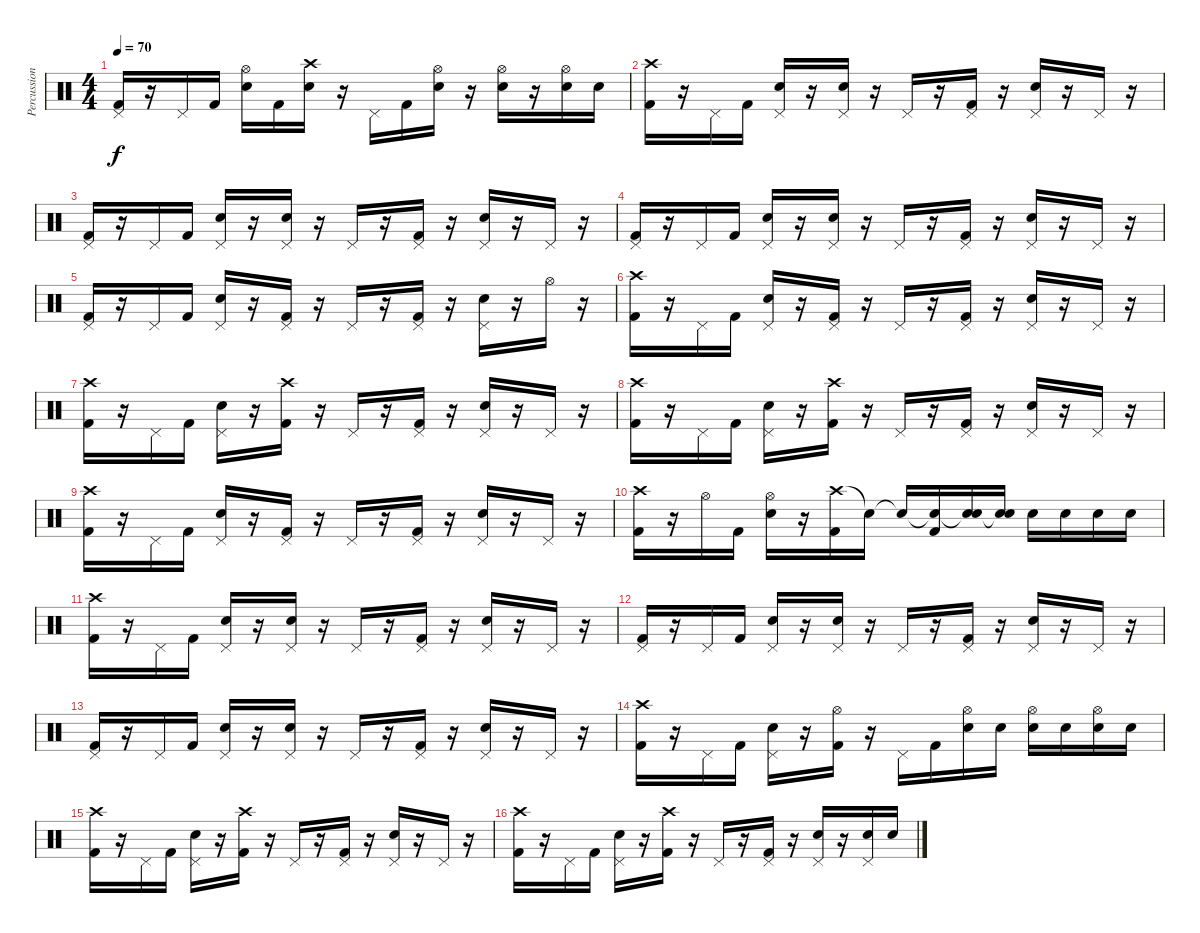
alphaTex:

\track ("Percussion" "Percussion") {instrument percussion}
\staff {score}
\articulation defaults
\ts (4 4)
\tempo 70
\clef neutral
\ks c
("Pedal Hi-Hat (hit)" "Kick (hit) 2").16{dy f} r.16 "Pedal Hi-Hat (hit)".16 "Kick (hit) 2".16 ("Hi-Hat (open)" "Electric Snare (hit)").16 "Kick (hit) 2".16 ("Crash high (hit)" "Electric Snare (hit)").16 r.16 "Pedal Hi-Hat (hit)".16 "Kick (hit) 2".16 ("Hi-Hat (open)" "Electric Snare (hit)").16 r.16 ("Hi-Hat (open)" "Electric Snare (hit)").16 r.16 ("Hi-Hat (open)" "Electric Snare (hit)").16 "Electric Snare (hit)".16 |
("Crash high (hit)" "Kick (hit) 2").16 r.16 "Pedal Hi-Hat (hit)".16 "Kick (hit) 2".16 ("Pedal Hi-Hat (hit)" "Electric Snare (hit)").16 r.16 ("Pedal Hi-Hat (hit)" "Electric Snare (hit)").16 r.16 "Pedal Hi-Hat (hit)".16 r.16 ("Pedal Hi-Hat (hit)" "Kick (hit) 2").16 r.16 ("Pedal Hi-Hat (hit)" "Electric Snare (hit)").16 r.16 "Pedal Hi-Hat (hit)".16 r.16 |
("Pedal Hi-Hat (hit)" "Kick (hit) 2").16 r.16 "Pedal Hi-Hat (hit)".16 "Kick (hit) 2".16 ("Pedal Hi-Hat (hit)" "Electric Snare (hit)").16 r.16 ("Pedal Hi-Hat (hit)" "Electric Snare (hit)").16 r.16 "Pedal Hi-Hat (hit)".16 r.16 ("Pedal Hi-Hat (hit)" "Kick (hit) 2").16 r.16 ("Pedal Hi-Hat (hit)" "Electric Snare (hit)").16 r.16 "Pedal Hi-Hat (hit)".16 r.16 |
("Pedal Hi-Hat (hit)" "Kick (hit) 2").16 r.16 "Pedal Hi-Hat (hit)".16 "Kick (hit) 2".16 ("Pedal Hi-Hat (hit)" "Electric Snare (hit)").16 r.16 ("Pedal Hi-Hat (hit)" "Electric Snare (hit)").16 r.16 "Pedal Hi-Hat (hit)".16 r.16 ("Pedal Hi-Hat (hit)" "Kick (hit) 2").16 r.16 ("Pedal Hi-Hat (hit)" "Electric Snare (hit)").16 r.16 "Pedal Hi-Hat (hit)".16 r.16 |
("Pedal Hi-Hat (hit)" "Kick (hit) 2").16 r.16 "Pedal Hi-Hat (hit)".16 "Kick (hit) 2".16 ("Pedal Hi-Hat (hit)" "Electric Snare (hit)").16 r.16 ("Pedal Hi-Hat (hit)" "Kick (hit) 2").16 r.16 "Pedal Hi-Hat (hit)".16 r.16 ("Pedal Hi-Hat (hit)" "Kick (hit) 2").16 r.16 ("Pedal Hi-Hat (hit)" "Electric Snare (hit)").16 r.16 "Hi-Hat (open)".16 r.16 |
("Crash high (hit)" "Kick (hit) 2").16 r.16 "Pedal Hi-Hat (hit)".16 "Kick (hit) 2".16 ("Pedal Hi-Hat (hit)" "Electric Snare (hit)").16 r.16 ("Pedal Hi-Hat (hit)" "Kick (hit) 2").16 r.16 "Pedal Hi-Hat (hit)".16 r.16 ("Pedal Hi-Hat (hit)" "Kick (hit) 2").16 r.16 ("Pedal Hi-Hat (hit)" "Electric Snare (hit)").16 r.16 "Pedal Hi-Hat (hit)".16 r.16 |
("Crash high (hit)" "Kick (hit) 2").16 r.16 "Pedal Hi-Hat (hit)".16 "Kick (hit) 2".16 ("Pedal Hi-Hat (hit)" "Electric Snare (hit)").16 r.16 ("Crash high (hit)" "Kick (hit) 2").16 r.16 "Pedal Hi-Hat (hit)".16 r.16 ("Pedal Hi-Hat (hit)" "Kick (hit) 2").16 r.16 ("Pedal Hi-Hat (hit)" "Electric Snare (hit)").16 r.16 "Pedal Hi-Hat (hit)".16 r.16 |
("Crash high (hit)" "Kick (hit) 2").16 r.16 "Pedal Hi-Hat (hit)".16 "Kick (hit) 2".16 ("Pedal Hi-Hat (hit)" "Electric Snare (hit)").16 r.16 ("Crash high (hit)" "Kick (hit) 2").16 r.16 "Pedal Hi-Hat (hit)".16 r.16 ("Pedal Hi-Hat (hit)" "Kick (hit) 2").16 r.16 ("Pedal Hi-Hat (hit)" "Electric Snare (hit)").16 r.16 "Pedal Hi-Hat (hit)".16 r.16 |
("Crash high (hit)" "Kick (hit) 2").16 r.16 "Pedal Hi-Hat (hit)".16 "Kick (hit) 2".16 ("Pedal Hi-Hat (hit)" "Electric Snare (hit)").16 r.16 ("Pedal Hi-Hat (hit)" "Kick (hit) 2").16 r.16 "Pedal Hi-Hat (hit)".16 r.16 ("Pedal Hi-Hat (hit)" "Kick (hit) 2").16 r.16 ("Pedal Hi-Hat (hit)" "Electric Snare (hit)").16 r.16 "Pedal Hi-Hat (hit)".16 r.16 |
("Crash high (hit)" "Kick (hit) 2").16 r.16 "Hi-Hat (open)".16 "Kick (hit) 2".16 ("Hi-Hat (open)" "Electric Snare (hit)").16 r.16 ("Crash high (hit)" "Kick (hit) 2").16 "Snare (hit)"{t}.16 "Snare (hit)"{t}.16 ("Snare (hit)"{t} "Kick (hit) 2").16 ("Snare (hit)"{t} "Electric Snare (hit)").16 ("Snare (hit)"{t} "Electric Snare (hit)").16 "Electric Snare (hit)".16 "Electric Snare (hit)".16 "Electric Snare (hit)".16 "Electric Snare (hit)".16 |
("Crash high (hit)" "Kick (hit) 2").16 r.16 "Pedal Hi-Hat (hit)".16 "Kick (hit) 2".16 ("Pedal Hi-Hat (hit)" "Electric Snare (hit)").16 r.16 ("Pedal Hi-Hat (hit)" "Electric Snare (hit)").16 r.16 "Pedal Hi-Hat (hit)".16 r.16 ("Pedal Hi-Hat (hit)" "Kick (hit) 2").16 r.16 ("Pedal Hi-Hat (hit)" "Electric Snare (hit)").16 r.16 "Pedal Hi-Hat (hit)".16 r.16 |
("Pedal Hi-Hat (hit)" "Kick (hit) 2").16 r.16 "Pedal Hi-Hat (hit)".16 "Kick (hit) 2".16 ("Pedal Hi-Hat (hit)" "Electric Snare (hit)").16 r.16 ("Pedal Hi-Hat (hit)" "Electric Snare (hit)").16 r.16 "Pedal Hi-Hat (hit)".16 r.16 ("Pedal Hi-Hat (hit)" "Kick (hit) 2").16 r.16 ("Pedal Hi-Hat (hit)" "Electric Snare (hit)").16 r.16 "Pedal Hi-Hat (hit)".16 r.16 |
("Pedal Hi-Hat (hit)" "Kick (hit) 2").16 r.16 "Pedal Hi-Hat (hit)".16 "Kick (hit) 2".16 ("Pedal Hi-Hat (hit)" "Electric Snare (hit)").16 r.16 ("Pedal Hi-Hat (hit)" "Electric Snare (hit)").16 r.16 "Pedal Hi-Hat (hit)".16 r.16 ("Pedal Hi-Hat (hit)" "Kick (hit) 2").16 r.16 ("Pedal Hi-Hat (hit)" "Electric Snare (hit)").16 r.16 "Pedal Hi-Hat (hit)".16 r.16 |
("Crash high (hit)" "Kick (hit) 2").16 r.16 "Pedal Hi-Hat (hit)".16 "Kick (hit) 2".16 ("Pedal Hi-Hat (hit)" "Electric Snare (hit)").16 r.16 ("Hi-Hat (open)" "Kick (hit) 2").16 r.16 "Pedal Hi-Hat (hit)".16 "Kick (hit) 2".16 ("Hi-Hat (open)" "Electric Snare (hit)").16 "Electric Snare (hit)".16 ("Hi-Hat (open)" "Electric Snare (hit)").16 "Electric Snare (hit)".16 ("Hi-Hat (open)" "Electric Snare (hit)").16 "Electric Snare (hit)".16 |
("Crash high (hit)" "Kick (hit) 2").16 r.16 "Pedal Hi-Hat (hit)".16 "Kick (hit) 2".16 ("Pedal Hi-Hat (hit)" "Electric Snare (hit)").16 r.16 ("Crash high (hit)" "Kick (hit) 2").16 r.16 "Pedal Hi-Hat (hit)".16 r.16 ("Pedal Hi-Hat (hit)" "Kick (hit) 2").16 r.16 ("Pedal Hi-Hat (hit)" "Electric Snare (hit)").16 r.16 "Pedal Hi-Hat (hit)".16 r.16 |
("Crash high (hit)" "Kick (hit) 2").16 r.16 "Pedal Hi-Hat (hit)".16 "Kick (hit) 2".16 ("Pedal Hi-Hat (hit)" "Electric Snare (hit)").16 r.16 ("Crash high (hit)" "Kick (hit) 2").16 r.16 "Pedal Hi-Hat (hit)".16 r.16 ("Pedal Hi-Hat (hit)" "Kick (hit) 2").16 r.16 ("Pedal Hi-Hat (hit)" "Electric Snare (hit)").16 r.16 ("Pedal Hi-Hat (hit)" "Electric Snare (hit)").16 "Electric Snare (hit)".16
